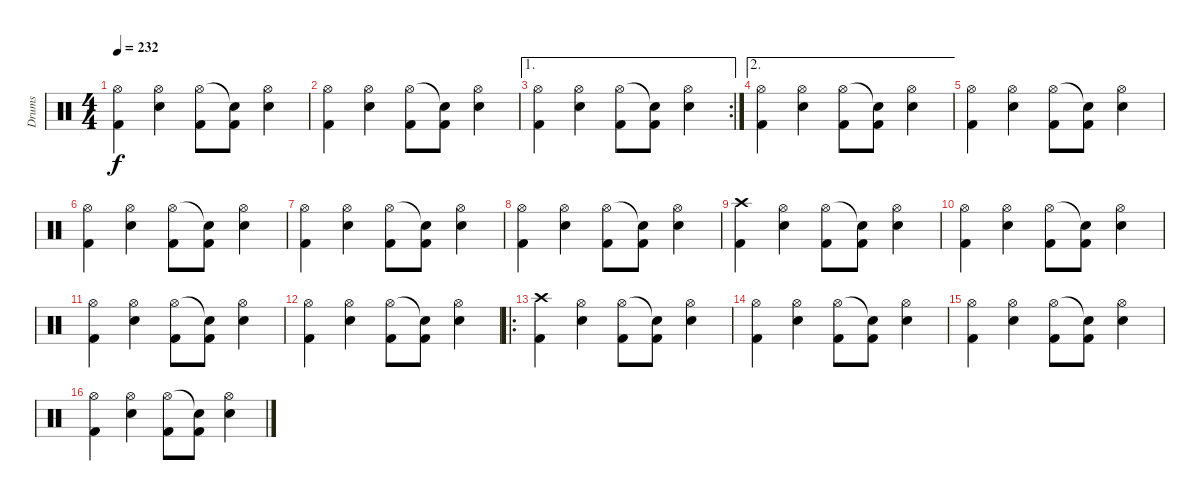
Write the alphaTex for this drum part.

\track ("Drums" "Drums") {instrument percussion}
\staff {score}
\articulation defaults
\ts (4 4)
\tempo 232
\clef neutral
\ks c
("Hi-Hat (open)" "Kick (hit) 2").4{dy f} ("Hi-Hat (open)" "Snare (hit) 2").4 ("Hi-Hat (open)" "Kick (hit) 2").8 ("Snare (hit)"{t} "Kick (hit) 2").8 ("Hi-Hat (open)" "Snare (hit) 2").4 |
("Hi-Hat (open)" "Kick (hit) 2").4 ("Hi-Hat (open)" "Snare (hit) 2").4 ("Hi-Hat (open)" "Kick (hit) 2").8 ("Snare (hit)"{t} "Kick (hit) 2").8 ("Hi-Hat (open)" "Snare (hit) 2").4 |
\ae 1
\rc 2
("Hi-Hat (open)" "Kick (hit) 2").4 ("Hi-Hat (open)" "Snare (hit) 2").4 ("Hi-Hat (open)" "Kick (hit) 2").8 ("Snare (hit)"{t} "Kick (hit) 2").8 ("Hi-Hat (open)" "Snare (hit) 2").4 |
\ae 2
("Hi-Hat (open)" "Kick (hit) 2").4 ("Hi-Hat (open)" "Snare (hit) 2").4 ("Hi-Hat (open)" "Kick (hit) 2").8 ("Snare (hit)"{t} "Kick (hit) 2").8 ("Hi-Hat (open)" "Snare (hit) 2").4 |
("Hi-Hat (open)" "Kick (hit) 2").4 ("Hi-Hat (open)" "Snare (hit) 2").4 ("Hi-Hat (open)" "Kick (hit) 2").8 ("Snare (hit)"{t} "Kick (hit) 2").8 ("Hi-Hat (open)" "Snare (hit) 2").4 |
("Hi-Hat (open)" "Kick (hit) 2").4 ("Hi-Hat (open)" "Snare (hit) 2").4 ("Hi-Hat (open)" "Kick (hit) 2").8 ("Snare (hit)"{t} "Kick (hit) 2").8 ("Hi-Hat (open)" "Snare (hit) 2").4 |
("Hi-Hat (open)" "Kick (hit) 2").4 ("Hi-Hat (open)" "Snare (hit) 2").4 ("Hi-Hat (open)" "Kick (hit) 2").8 ("Snare (hit)"{t} "Kick (hit) 2").8 ("Hi-Hat (open)" "Snare (hit) 2").4 |
("Hi-Hat (open)" "Kick (hit) 2").4 ("Hi-Hat (open)" "Snare (hit) 2").4 ("Hi-Hat (open)" "Kick (hit) 2").8 ("Snare (hit)"{t} "Kick (hit) 2").8 ("Hi-Hat (open)" "Snare (hit) 2").4 |
("Crash high (hit)" "Kick (hit) 2").4 ("Hi-Hat (open)" "Snare (hit) 2").4 ("Hi-Hat (open)" "Kick (hit) 2").8 ("Snare (hit)"{t} "Kick (hit) 2").8 ("Hi-Hat (open)" "Snare (hit) 2").4 |
("Hi-Hat (open)" "Kick (hit) 2").4 ("Hi-Hat (open)" "Snare (hit) 2").4 ("Hi-Hat (open)" "Kick (hit) 2").8 ("Snare (hit)"{t} "Kick (hit) 2").8 ("Hi-Hat (open)" "Snare (hit) 2").4 |
("Hi-Hat (open)" "Kick (hit) 2").4 ("Hi-Hat (open)" "Snare (hit) 2").4 ("Hi-Hat (open)" "Kick (hit) 2").8 ("Snare (hit)"{t} "Kick (hit) 2").8 ("Hi-Hat (open)" "Snare (hit) 2").4 |
("Hi-Hat (open)" "Kick (hit) 2").4 ("Hi-Hat (open)" "Snare (hit) 2").4 ("Hi-Hat (open)" "Kick (hit) 2").8 ("Snare (hit)"{t} "Kick (hit) 2").8 ("Hi-Hat (open)" "Snare (hit) 2").4 |
\ro
("Crash high (hit)" "Kick (hit) 2").4 ("Hi-Hat (open)" "Snare (hit) 2").4 ("Hi-Hat (open)" "Kick (hit) 2").8 ("Snare (hit)"{t} "Kick (hit) 2").8 ("Hi-Hat (open)" "Snare (hit) 2").4 |
("Hi-Hat (open)" "Kick (hit) 2").4 ("Hi-Hat (open)" "Snare (hit) 2").4 ("Hi-Hat (open)" "Kick (hit) 2").8 ("Snare (hit)"{t} "Kick (hit) 2").8 ("Hi-Hat (open)" "Snare (hit) 2").4 |
("Hi-Hat (open)" "Kick (hit) 2").4 ("Hi-Hat (open)" "Snare (hit) 2").4 ("Hi-Hat (open)" "Kick (hit) 2").8 ("Snare (hit)"{t} "Kick (hit) 2").8 ("Hi-Hat (open)" "Snare (hit) 2").4 |
("Hi-Hat (open)" "Kick (hit) 2").4 ("Hi-Hat (open)" "Snare (hit) 2").4 ("Hi-Hat (open)" "Kick (hit) 2").8 ("Snare (hit)"{t} "Kick (hit) 2").8 ("Hi-Hat (open)" "Snare (hit) 2").4
